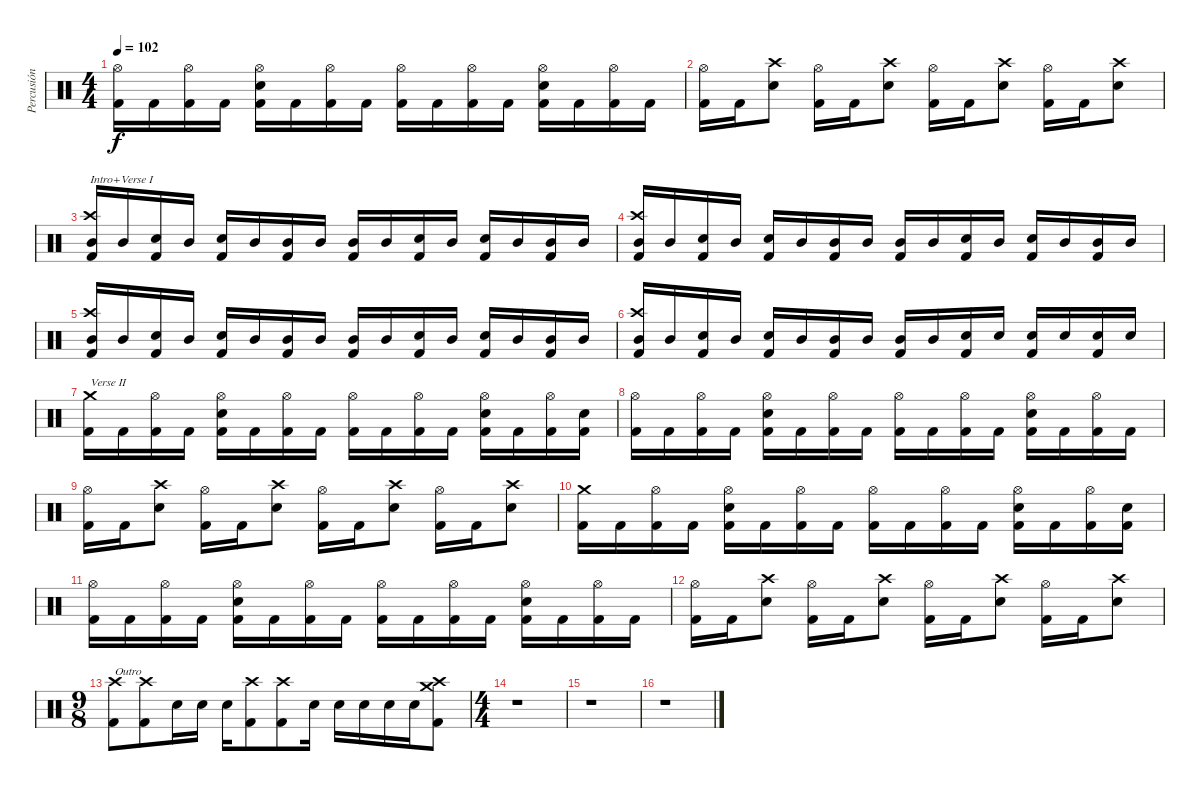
\track ("Percusión" "Percusión") {instrument percussion}
\staff {score}
\articulation defaults
\ts (4 4)
\tempo 102
\clef neutral
\ks c
("Hi-Hat (open)" "Kick (hit) 2").16{dy f} "Kick (hit) 2".16 ("Hi-Hat (open)" "Kick (hit) 2").16 "Kick (hit) 2".16 ("Hi-Hat (open)" "Electric Snare (hit)" "Kick (hit) 2").16 "Kick (hit) 2".16 ("Hi-Hat (open)" "Kick (hit) 2").16 "Kick (hit) 2".16 ("Hi-Hat (open)" "Kick (hit) 2").16 "Kick (hit) 2".16 ("Hi-Hat (open)" "Kick (hit) 2").16 "Kick (hit) 2".16 ("Hi-Hat (open)" "Electric Snare (hit)" "Kick (hit) 2").16 "Kick (hit) 2".16 ("Hi-Hat (open)" "Kick (hit) 2").16 "Kick (hit) 2".16 |
("Hi-Hat (open)" "Kick (hit) 2").16 "Kick (hit) 2".16 ("Crash high (hit)" "Electric Snare (hit)").8 ("Hi-Hat (open)" "Kick (hit) 2").16 "Kick (hit) 2".16 ("Crash high (hit)" "Electric Snare (hit)").8 ("Hi-Hat (open)" "Kick (hit) 2").16 "Kick (hit) 2".16 ("Crash high (hit)" "Electric Snare (hit)").8 ("Hi-Hat (open)" "Kick (hit) 2").16 "Kick (hit) 2".16 ("Crash high (hit)" "Electric Snare (hit)").8 |
("Crash high (hit)" "Mid Tom (hit)" "Kick (hit) 2").16{txt "Intro+Verse I"} "Mid Tom (hit)".16 ("Electric Snare (hit)" "Kick (hit) 2").16 "Mid Tom (hit)".16 ("Electric Snare (hit)" "Kick (hit) 2").16 "Mid Tom (hit)".16 ("Mid Tom (hit)" "Kick (hit) 2").16 "Mid Tom (hit)".16 ("Mid Tom (hit)" "Kick (hit) 2").16 "Mid Tom (hit)".16 ("Electric Snare (hit)" "Kick (hit) 2").16 "Mid Tom (hit)".16 ("Electric Snare (hit)" "Kick (hit) 2").16 "Mid Tom (hit)".16 ("Mid Tom (hit)" "Kick (hit) 2").16 "Mid Tom (hit)".16 |
("Crash high (hit)" "Mid Tom (hit)" "Kick (hit) 2").16 "Mid Tom (hit)".16 ("Electric Snare (hit)" "Kick (hit) 2").16 "Mid Tom (hit)".16 ("Electric Snare (hit)" "Kick (hit) 2").16 "Mid Tom (hit)".16 ("Mid Tom (hit)" "Kick (hit) 2").16 "Mid Tom (hit)".16 ("Mid Tom (hit)" "Kick (hit) 2").16 "Mid Tom (hit)".16 ("Electric Snare (hit)" "Kick (hit) 2").16 "Mid Tom (hit)".16 ("Electric Snare (hit)" "Kick (hit) 2").16 "Mid Tom (hit)".16 ("Mid Tom (hit)" "Kick (hit) 2").16 "Mid Tom (hit)".16 |
("Crash high (hit)" "Mid Tom (hit)" "Kick (hit) 2").16 "Mid Tom (hit)".16 ("Electric Snare (hit)" "Kick (hit) 2").16 "Mid Tom (hit)".16 ("Electric Snare (hit)" "Kick (hit) 2").16 "Mid Tom (hit)".16 ("Mid Tom (hit)" "Kick (hit) 2").16 "Mid Tom (hit)".16 ("Mid Tom (hit)" "Kick (hit) 2").16 "Mid Tom (hit)".16 ("Electric Snare (hit)" "Kick (hit) 2").16 "Mid Tom (hit)".16 ("Electric Snare (hit)" "Kick (hit) 2").16 "Mid Tom (hit)".16 ("Mid Tom (hit)" "Kick (hit) 2").16 "Mid Tom (hit)".16 |
("Crash high (hit)" "Mid Tom (hit)" "Kick (hit) 2").16 "Mid Tom (hit)".16 ("Electric Snare (hit)" "Kick (hit) 2").16 "Mid Tom (hit)".16 ("Electric Snare (hit)" "Kick (hit) 2").16 "Mid Tom (hit)".16 ("Mid Tom (hit)" "Kick (hit) 2").16 "Mid Tom (hit)".16 ("Mid Tom (hit)" "Kick (hit) 2").16 "Mid Tom (hit)".16 ("Electric Snare (hit)" "Kick (hit) 2").16 "Electric Snare (hit)".16 ("Electric Snare (hit)" "Kick (hit) 2").16 "Electric Snare (hit)".16 ("Electric Snare (hit)" "Kick (hit) 2").16 "Electric Snare (hit)".16 |
("Crash medium (hit)" "Kick (hit) 2").16{txt "Verse II"} "Kick (hit) 2".16 ("Hi-Hat (open)" "Kick (hit) 2").16 "Kick (hit) 2".16 ("Hi-Hat (open)" "Electric Snare (hit)" "Kick (hit) 2").16 "Kick (hit) 2".16 ("Hi-Hat (open)" "Kick (hit) 2").16 "Kick (hit) 2".16 ("Hi-Hat (open)" "Kick (hit) 2").16 "Kick (hit) 2".16 ("Hi-Hat (open)" "Kick (hit) 2").16 "Kick (hit) 2".16 ("Hi-Hat (open)" "Electric Snare (hit)" "Kick (hit) 2").16 "Kick (hit) 2".16 ("Hi-Hat (open)" "Kick (hit) 2").16 ("Electric Snare (hit)" "Kick (hit) 2").16 |
("Hi-Hat (open)" "Kick (hit) 2").16 "Kick (hit) 2".16 ("Hi-Hat (open)" "Kick (hit) 2").16 "Kick (hit) 2".16 ("Hi-Hat (open)" "Electric Snare (hit)" "Kick (hit) 2").16 "Kick (hit) 2".16 ("Hi-Hat (open)" "Kick (hit) 2").16 "Kick (hit) 2".16 ("Hi-Hat (open)" "Kick (hit) 2").16 "Kick (hit) 2".16 ("Hi-Hat (open)" "Kick (hit) 2").16 "Kick (hit) 2".16 ("Hi-Hat (open)" "Electric Snare (hit)" "Kick (hit) 2").16 "Kick (hit) 2".16 ("Hi-Hat (open)" "Kick (hit) 2").16 "Kick (hit) 2".16 |
("Hi-Hat (open)" "Kick (hit) 2").16 "Kick (hit) 2".16 ("Crash high (hit)" "Electric Snare (hit)").8 ("Hi-Hat (open)" "Kick (hit) 2").16 "Kick (hit) 2".16 ("Crash high (hit)" "Electric Snare (hit)").8 ("Hi-Hat (open)" "Kick (hit) 2").16 "Kick (hit) 2".16 ("Crash high (hit)" "Electric Snare (hit)").8 ("Hi-Hat (open)" "Kick (hit) 2").16 "Kick (hit) 2".16 ("Crash high (hit)" "Electric Snare (hit)").8 |
("Crash medium (hit)" "Kick (hit) 2").16 "Kick (hit) 2".16 ("Hi-Hat (open)" "Kick (hit) 2").16 "Kick (hit) 2".16 ("Hi-Hat (open)" "Electric Snare (hit)" "Kick (hit) 2").16 "Kick (hit) 2".16 ("Hi-Hat (open)" "Kick (hit) 2").16 "Kick (hit) 2".16 ("Hi-Hat (open)" "Kick (hit) 2").16 "Kick (hit) 2".16 ("Hi-Hat (open)" "Kick (hit) 2").16 "Kick (hit) 2".16 ("Hi-Hat (open)" "Electric Snare (hit)" "Kick (hit) 2").16 "Kick (hit) 2".16 ("Hi-Hat (open)" "Kick (hit) 2").16 ("Electric Snare (hit)" "Kick (hit) 2").16 |
("Hi-Hat (open)" "Kick (hit) 2").16 "Kick (hit) 2".16 ("Hi-Hat (open)" "Kick (hit) 2").16 "Kick (hit) 2".16 ("Hi-Hat (open)" "Electric Snare (hit)" "Kick (hit) 2").16 "Kick (hit) 2".16 ("Hi-Hat (open)" "Kick (hit) 2").16 "Kick (hit) 2".16 ("Hi-Hat (open)" "Kick (hit) 2").16 "Kick (hit) 2".16 ("Hi-Hat (open)" "Kick (hit) 2").16 "Kick (hit) 2".16 ("Hi-Hat (open)" "Electric Snare (hit)" "Kick (hit) 2").16 "Kick (hit) 2".16 ("Hi-Hat (open)" "Kick (hit) 2").16 "Kick (hit) 2".16 |
("Hi-Hat (open)" "Kick (hit) 2").16 "Kick (hit) 2".16 ("Crash high (hit)" "Electric Snare (hit)").8 ("Hi-Hat (open)" "Kick (hit) 2").16 "Kick (hit) 2".16 ("Crash high (hit)" "Electric Snare (hit)").8 ("Hi-Hat (open)" "Kick (hit) 2").16 "Kick (hit) 2".16 ("Crash high (hit)" "Electric Snare (hit)").8 ("Hi-Hat (open)" "Kick (hit) 2").16 "Kick (hit) 2".16 ("Crash high (hit)" "Electric Snare (hit)").8 |
\ts (9 8)
("Crash high (hit)" "Kick (hit) 2").8{txt "Outro"} ("Crash high (hit)" "Kick (hit) 2").8 "Electric Snare (hit)".16 "Electric Snare (hit)".16 "Electric Snare (hit)".16 ("Crash high (hit)" "Kick (hit) 2").8 ("Crash high (hit)" "Kick (hit) 2").8 "Electric Snare (hit)".16 "Electric Snare (hit)".16 "Electric Snare (hit)".16 "Electric Snare (hit)".16 "Electric Snare (hit)".16 ("Crash high (hit)" "Crash medium (hit)" "Kick (hit) 2").8 |
\ts (4 4)
r.1 |
r.1 |
r.1
